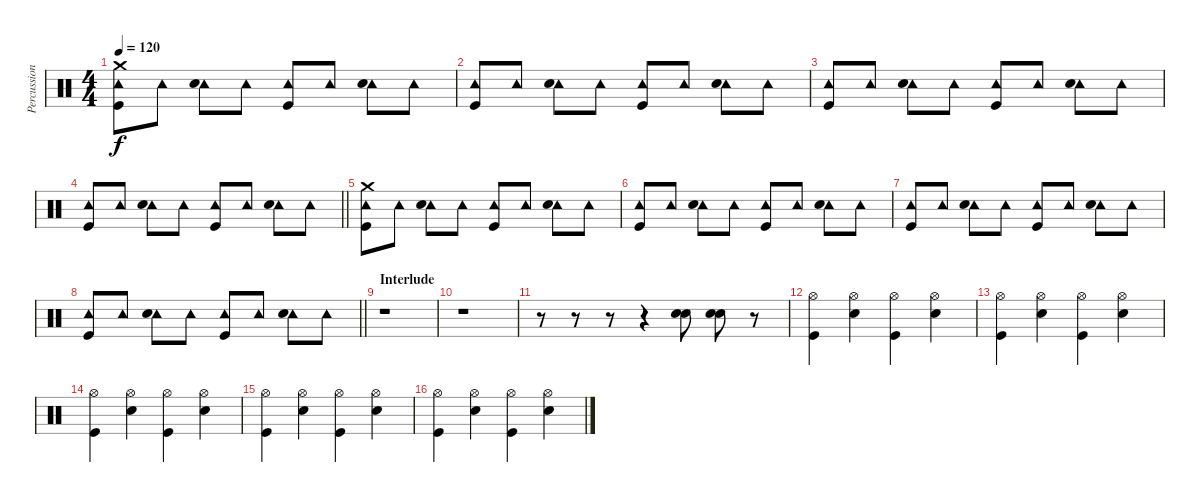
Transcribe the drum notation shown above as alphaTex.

\track ("Percussion" "Percussion") {instrument percussion}
\staff {score}
\articulation defaults
\ts (4 4)
\tempo 120
\clef neutral
\ks c
("Crash medium (hit)" "Tambourine (hit)" "Kick (hit)").8{dy f} "Tambourine (hit)".8 ("Tambourine (hit)" "Electric Snare (hit)").8 "Tambourine (hit)".8 ("Tambourine (hit)" "Kick (hit)").8 "Tambourine (hit)".8 ("Tambourine (hit)" "Electric Snare (hit)").8 "Tambourine (hit)".8 |
("Tambourine (hit)" "Kick (hit)").8 "Tambourine (hit)".8 ("Tambourine (hit)" "Electric Snare (hit)").8 "Tambourine (hit)".8 ("Tambourine (hit)" "Kick (hit)").8 "Tambourine (hit)".8 ("Tambourine (hit)" "Electric Snare (hit)").8 "Tambourine (hit)".8 |
("Tambourine (hit)" "Kick (hit)").8 "Tambourine (hit)".8 ("Tambourine (hit)" "Electric Snare (hit)").8 "Tambourine (hit)".8 ("Tambourine (hit)" "Kick (hit)").8 "Tambourine (hit)".8 ("Tambourine (hit)" "Electric Snare (hit)").8 "Tambourine (hit)".8 |
\barLineRight lightlight
("Tambourine (hit)" "Kick (hit)").8 "Tambourine (hit)".8 ("Tambourine (hit)" "Electric Snare (hit)").8 "Tambourine (hit)".8 ("Tambourine (hit)" "Kick (hit)").8 "Tambourine (hit)".8 ("Tambourine (hit)" "Electric Snare (hit)").8 "Tambourine (hit)".8 |
("Crash medium (hit)" "Tambourine (hit)" "Kick (hit)").8 "Tambourine (hit)".8 ("Tambourine (hit)" "Electric Snare (hit)").8 "Tambourine (hit)".8 ("Tambourine (hit)" "Kick (hit)").8 "Tambourine (hit)".8 ("Tambourine (hit)" "Electric Snare (hit)").8 "Tambourine (hit)".8 |
("Tambourine (hit)" "Kick (hit)").8 "Tambourine (hit)".8 ("Tambourine (hit)" "Electric Snare (hit)").8 "Tambourine (hit)".8 ("Tambourine (hit)" "Kick (hit)").8 "Tambourine (hit)".8 ("Tambourine (hit)" "Electric Snare (hit)").8 "Tambourine (hit)".8 |
("Tambourine (hit)" "Kick (hit)").8 "Tambourine (hit)".8 ("Tambourine (hit)" "Electric Snare (hit)").8 "Tambourine (hit)".8 ("Tambourine (hit)" "Kick (hit)").8 "Tambourine (hit)".8 ("Tambourine (hit)" "Electric Snare (hit)").8 "Tambourine (hit)".8 |
\barLineRight lightlight
("Tambourine (hit)" "Kick (hit)").8 "Tambourine (hit)".8 ("Tambourine (hit)" "Electric Snare (hit)").8 "Tambourine (hit)".8 ("Tambourine (hit)" "Kick (hit)").8 "Tambourine (hit)".8 ("Tambourine (hit)" "Electric Snare (hit)").8 "Tambourine (hit)".8 |
\section ("" "Interlude")
r.1 |
r.1 |
r.8 r.8 r.8 r.4 ("Electric Snare (hit)" "Electric Snare (hit)").8 ("Electric Snare (hit)" "Electric Snare (hit)").8 r.8 |
("Hi-Hat (open)" "Kick (hit)").4 ("Hi-Hat (open)" "Electric Snare (hit)").4 ("Hi-Hat (open)" "Kick (hit)").4 ("Hi-Hat (open)" "Electric Snare (hit)").4 |
("Hi-Hat (open)" "Kick (hit)").4 ("Hi-Hat (open)" "Electric Snare (hit)").4 ("Hi-Hat (open)" "Kick (hit)").4 ("Hi-Hat (open)" "Electric Snare (hit)").4 |
("Hi-Hat (open)" "Kick (hit)").4 ("Hi-Hat (open)" "Electric Snare (hit)").4 ("Hi-Hat (open)" "Kick (hit)").4 ("Hi-Hat (open)" "Electric Snare (hit)").4 |
("Hi-Hat (open)" "Kick (hit)").4 ("Hi-Hat (open)" "Electric Snare (hit)").4 ("Hi-Hat (open)" "Kick (hit)").4 ("Hi-Hat (open)" "Electric Snare (hit)").4 |
("Hi-Hat (open)" "Kick (hit)").4 ("Hi-Hat (open)" "Electric Snare (hit)").4 ("Hi-Hat (open)" "Kick (hit)").4 ("Hi-Hat (open)" "Electric Snare (hit)").4
